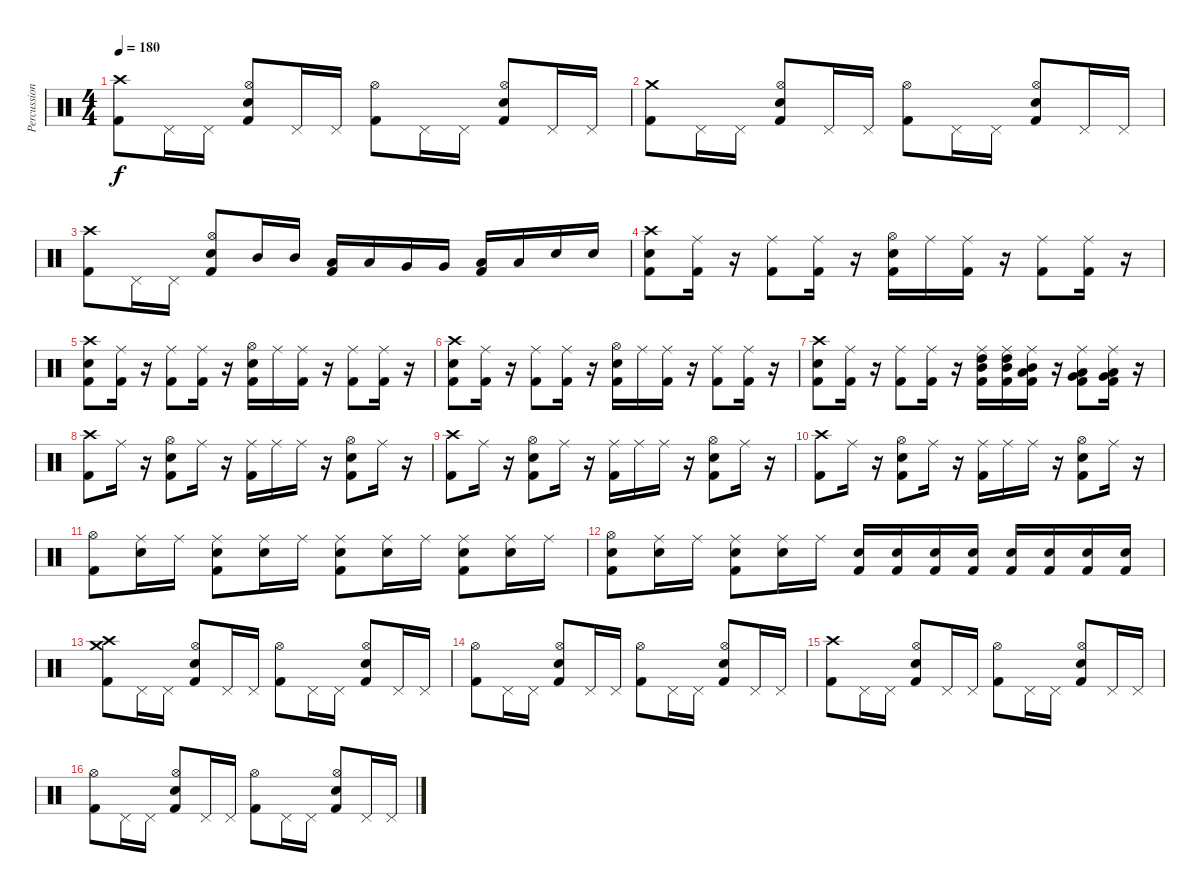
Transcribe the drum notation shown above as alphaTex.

\track ("Percussion" "Percussion") {instrument percussion}
\staff {score}
\articulation defaults
\ts (4 4)
\tempo 180
\clef neutral
\ks c
("Crash high (hit)" "Kick (hit) 2").8{dy f} "Pedal Hi-Hat (hit)".16 "Pedal Hi-Hat (hit)".16 ("Hi-Hat (open)" "Electric Snare (hit)" "Kick (hit) 2").8 "Pedal Hi-Hat (hit)".16 "Pedal Hi-Hat (hit)".16 ("Hi-Hat (open)" "Kick (hit) 2").8 "Pedal Hi-Hat (hit)".16 "Pedal Hi-Hat (hit)".16 ("Hi-Hat (open)" "Electric Snare (hit)" "Kick (hit) 2").8 "Pedal Hi-Hat (hit)".16 "Pedal Hi-Hat (hit)".16 |
("Crash medium (hit)" "Kick (hit) 2").8 "Pedal Hi-Hat (hit)".16 "Pedal Hi-Hat (hit)".16 ("Hi-Hat (open)" "Electric Snare (hit)" "Kick (hit) 2").8 "Pedal Hi-Hat (hit)".16 "Pedal Hi-Hat (hit)".16 ("Hi-Hat (open)" "Kick (hit) 2").8 "Pedal Hi-Hat (hit)".16 "Pedal Hi-Hat (hit)".16 ("Hi-Hat (open)" "Electric Snare (hit)" "Kick (hit) 2").8 "Pedal Hi-Hat (hit)".16 "Pedal Hi-Hat (hit)".16 |
("Crash high (hit)" "Kick (hit) 2").8 "Pedal Hi-Hat (hit)".16 "Pedal Hi-Hat (hit)".16 ("Hi-Hat (open)" "Electric Snare (hit)" "Kick (hit) 2").8 "Mid Tom (hit)".16 "Mid Tom (hit)".16 ("Low Tom (hit)" "Kick (hit) 2").16 "Low Tom (hit)".16 "Very Low Tom (hit)".16 "Very Low Tom (hit)".16 ("Low Floor Tom (hit)" "Kick (hit) 2").16 "Low Floor Tom (hit)".16 "Electric Snare (hit)".16 "Electric Snare (hit)".16 |
("Crash high (hit)" "Electric Snare (hit)" "Kick (hit) 2").8 ("Ride (middle)" "Kick (hit) 2").16 r.16 ("Ride (middle)" "Kick (hit) 2").8 ("Ride (middle)" "Kick (hit) 2").16 r.16 ("Hi-Hat (open)" "Electric Snare (hit)" "Kick (hit) 2").16 "Ride (middle)".16 ("Ride (middle)" "Kick (hit) 2").16 r.16 ("Ride (middle)" "Kick (hit) 2").8 ("Ride (middle)" "Kick (hit) 2").16 r.16 |
("Crash high (hit)" "Electric Snare (hit)" "Kick (hit) 2").8 ("Ride (middle)" "Kick (hit) 2").16 r.16 ("Ride (middle)" "Kick (hit) 2").8 ("Ride (middle)" "Kick (hit) 2").16 r.16 ("Hi-Hat (open)" "Electric Snare (hit)" "Kick (hit) 2").16 "Ride (middle)".16 ("Ride (middle)" "Kick (hit) 2").16 r.16 ("Ride (middle)" "Kick (hit) 2").8 ("Ride (middle)" "Kick (hit) 2").16 r.16 |
("Crash high (hit)" "Electric Snare (hit)" "Kick (hit) 2").8 ("Ride (middle)" "Kick (hit) 2").16 r.16 ("Ride (middle)" "Kick (hit) 2").8 ("Ride (middle)" "Kick (hit) 2").16 r.16 ("Hi-Hat (open)" "Electric Snare (hit)" "Kick (hit) 2").16 "Ride (middle)".16 ("Ride (middle)" "Kick (hit) 2").16 r.16 ("Ride (middle)" "Kick (hit) 2").8 ("Ride (middle)" "Kick (hit) 2").16 r.16 |
("Crash high (hit)" "Electric Snare (hit)" "Kick (hit) 2").8 ("Ride (middle)" "Kick (hit) 2").16 r.16 ("Ride (middle)" "Kick (hit) 2").8 ("Ride (middle)" "Kick (hit) 2").16 r.16 ("Ride (middle)" "Mid Tom (hit)" "High Tom (hit)" "Kick (hit) 2").16 ("Ride (middle)" "Mid Tom (hit)" "High Tom (hit)" "Kick (hit) 2").16 ("Ride (middle)" "Low Tom (hit)" "Mid Tom (hit)" "Kick (hit) 2").16 r.16 ("Ride (middle)" "Very Low Tom (hit)" "Low Tom (hit)" "Kick (hit) 2").8 ("Ride (middle)" "Low Floor Tom (hit)" "Very Low Tom (hit)" "Kick (hit) 2").16 r.16 |
("Crash high (hit)" "Kick (hit) 2").8 "Ride (middle)".16 r.16 ("Hi-Hat (open)" "Electric Snare (hit)" "Kick (hit) 2").8 "Ride (middle)".16 r.16 ("Ride (middle)" "Kick (hit) 2").16 "Ride (middle)".16 "Ride (middle)".16 r.16 ("Hi-Hat (open)" "Electric Snare (hit)" "Kick (hit) 2").8 "Ride (middle)".16 r.16 |
("Crash high (hit)" "Kick (hit) 2").8 "Ride (middle)".16 r.16 ("Hi-Hat (open)" "Electric Snare (hit)" "Kick (hit) 2").8 "Ride (middle)".16 r.16 ("Ride (middle)" "Kick (hit) 2").16 "Ride (middle)".16 "Ride (middle)".16 r.16 ("Hi-Hat (open)" "Electric Snare (hit)" "Kick (hit) 2").8 "Ride (middle)".16 r.16 |
("Crash high (hit)" "Kick (hit) 2").8 "Ride (middle)".16 r.16 ("Hi-Hat (open)" "Electric Snare (hit)" "Kick (hit) 2").8 "Ride (middle)".16 r.16 ("Ride (middle)" "Kick (hit) 2").16 "Ride (middle)".16 "Ride (middle)".16 r.16 ("Hi-Hat (open)" "Electric Snare (hit)" "Kick (hit) 2").8 "Ride (middle)".16 r.16 |
("Hi-Hat (open)" "Kick (hit) 2").8 ("Ride (middle)" "Electric Snare (hit)").16 "Ride (middle)".16 ("Ride (middle)" "Electric Snare (hit)" "Kick (hit) 2").8 ("Ride (middle)" "Electric Snare (hit)").16 "Ride (middle)".16 ("Ride (middle)" "Electric Snare (hit)" "Kick (hit) 2").8 ("Ride (middle)" "Electric Snare (hit)").16 "Ride (middle)".16 ("Ride (middle)" "Electric Snare (hit)" "Kick (hit) 2").8 ("Ride (middle)" "Electric Snare (hit)").16 "Ride (middle)".16 |
("Hi-Hat (open)" "Electric Snare (hit)" "Kick (hit) 2").8 ("Ride (middle)" "Electric Snare (hit)").16 "Ride (middle)".16 ("Ride (middle)" "Electric Snare (hit)" "Kick (hit) 2").8 ("Ride (middle)" "Electric Snare (hit)").16 "Ride (middle)".16 ("Electric Snare (hit)" "Kick (hit) 2").16 ("Electric Snare (hit)" "Kick (hit) 2").16 ("Electric Snare (hit)" "Kick (hit) 2").16 ("Electric Snare (hit)" "Kick (hit) 2").16 ("Electric Snare (hit)" "Kick (hit) 2").16 ("Electric Snare (hit)" "Kick (hit) 2").16 ("Electric Snare (hit)" "Kick (hit) 2").16 ("Electric Snare (hit)" "Kick (hit) 2").16 |
("Crash high (hit)" "Crash medium (hit)" "Kick (hit) 2").8 "Pedal Hi-Hat (hit)".16 "Pedal Hi-Hat (hit)".16 ("Hi-Hat (open)" "Electric Snare (hit)" "Kick (hit) 2").8 "Pedal Hi-Hat (hit)".16 "Pedal Hi-Hat (hit)".16 ("Hi-Hat (open)" "Kick (hit) 2").8 "Pedal Hi-Hat (hit)".16 "Pedal Hi-Hat (hit)".16 ("Hi-Hat (open)" "Electric Snare (hit)" "Kick (hit) 2").8 "Pedal Hi-Hat (hit)".16 "Pedal Hi-Hat (hit)".16 |
("Hi-Hat (open)" "Kick (hit) 2").8 "Pedal Hi-Hat (hit)".16 "Pedal Hi-Hat (hit)".16 ("Hi-Hat (open)" "Electric Snare (hit)" "Kick (hit) 2").8 "Pedal Hi-Hat (hit)".16 "Pedal Hi-Hat (hit)".16 ("Hi-Hat (open)" "Kick (hit) 2").8 "Pedal Hi-Hat (hit)".16 "Pedal Hi-Hat (hit)".16 ("Hi-Hat (open)" "Electric Snare (hit)" "Kick (hit) 2").8 "Pedal Hi-Hat (hit)".16 "Pedal Hi-Hat (hit)".16 |
("Crash high (hit)" "Kick (hit) 2").8 "Pedal Hi-Hat (hit)".16 "Pedal Hi-Hat (hit)".16 ("Hi-Hat (open)" "Electric Snare (hit)" "Kick (hit) 2").8 "Pedal Hi-Hat (hit)".16 "Pedal Hi-Hat (hit)".16 ("Hi-Hat (open)" "Kick (hit) 2").8 "Pedal Hi-Hat (hit)".16 "Pedal Hi-Hat (hit)".16 ("Hi-Hat (open)" "Electric Snare (hit)" "Kick (hit) 2").8 "Pedal Hi-Hat (hit)".16 "Pedal Hi-Hat (hit)".16 |
("Hi-Hat (open)" "Kick (hit) 2").8 "Pedal Hi-Hat (hit)".16 "Pedal Hi-Hat (hit)".16 ("Hi-Hat (open)" "Electric Snare (hit)" "Kick (hit) 2").8 "Pedal Hi-Hat (hit)".16 "Pedal Hi-Hat (hit)".16 ("Hi-Hat (open)" "Kick (hit) 2").8 "Pedal Hi-Hat (hit)".16 "Pedal Hi-Hat (hit)".16 ("Hi-Hat (open)" "Electric Snare (hit)" "Kick (hit) 2").8 "Pedal Hi-Hat (hit)".16 "Pedal Hi-Hat (hit)".16
